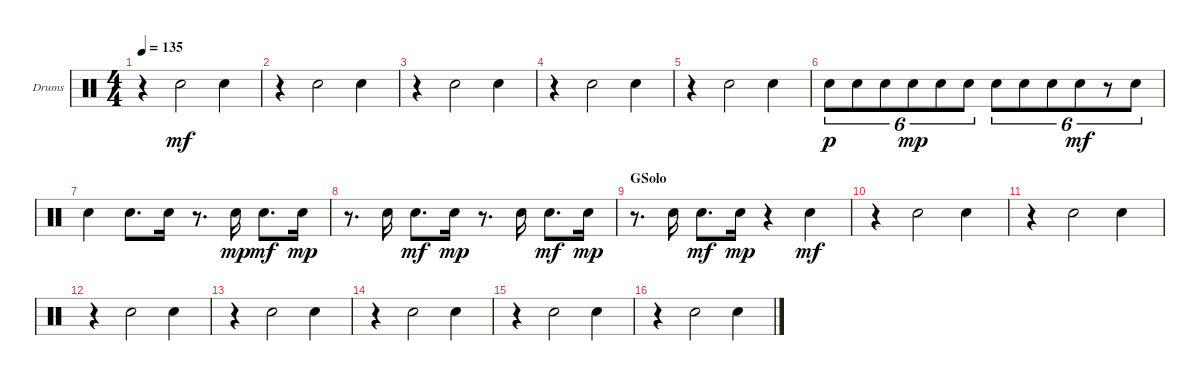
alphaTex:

\bracketExtendMode groupsimilarinstruments
\firstSystemTrackNameOrientation horizontal
\otherSystemsTrackNameOrientation horizontal
\track ("Snare" "Drums") {instrument percussion}
\staff {score}
\articulation defaults
\ts (4 4)
\tempo 135
\clef neutral
\ks c
r.4{dy mf} "Snare (hit) 2".2 "Snare (hit) 2".4 |
r.4 "Snare (hit) 2".2 "Snare (hit) 2".4 |
r.4 "Snare (hit) 2".2 "Snare (hit) 2".4 |
r.4 "Snare (hit) 2".2 "Snare (hit) 2".4 |
\scale
0.243762 r.4 "Snare (hit) 2".2 "Snare (hit) 2".4 |
\scale
0.43762 "Snare (hit) 2".8{tu (6 4) dy p} "Snare (hit) 2".8{tu (6 4)} "Snare (hit) 2".8{tu (6 4)} "Snare (hit) 2".8{tu (6 4) dy mp} "Snare (hit) 2".8{tu (6 4)} "Snare (hit) 2".8{tu (6 4)} "Snare (hit) 2".8{tu (6 4)} "Snare (hit) 2".8{tu (6 4)} "Snare (hit) 2".8{tu (6 4)} "Snare (hit) 2".8{tu (6 4) dy mf} r.8{tu (6 4)} "Snare (hit) 2".8{tu (6 4)} |
\scale
0.318618 "Snare (hit) 2".4 "Snare (hit) 2".8{d} "Snare (hit) 2".16 r.8{d} "Snare (hit) 2".16{dy mp} "Snare (hit) 2".8{d dy mf} "Snare (hit) 2".16{dy mp} |
r.8{d} "Snare (hit) 2".16 "Snare (hit) 2".8{d dy mf} "Snare (hit) 2".16{dy mp} r.8{d} "Snare (hit) 2".16 "Snare (hit) 2".8{d dy mf} "Snare (hit) 2".16{dy mp} |
\section ("" "GSolo")
r.8{d} "Snare (hit) 2".16 "Snare (hit) 2".8{d dy mf} "Snare (hit) 2".16{dy mp} r.4 "Snare (hit) 2".4{dy mf} |
r.4 "Snare (hit) 2".2 "Snare (hit) 2".4 |
r.4 "Snare (hit) 2".2 "Snare (hit) 2".4 |
r.4 "Snare (hit) 2".2 "Snare (hit) 2".4 |
r.4 "Snare (hit) 2".2 "Snare (hit) 2".4 |
r.4 "Snare (hit) 2".2 "Snare (hit) 2".4 |
r.4 "Snare (hit) 2".2 "Snare (hit) 2".4 |
r.4 "Snare (hit) 2".2 "Snare (hit) 2".4
